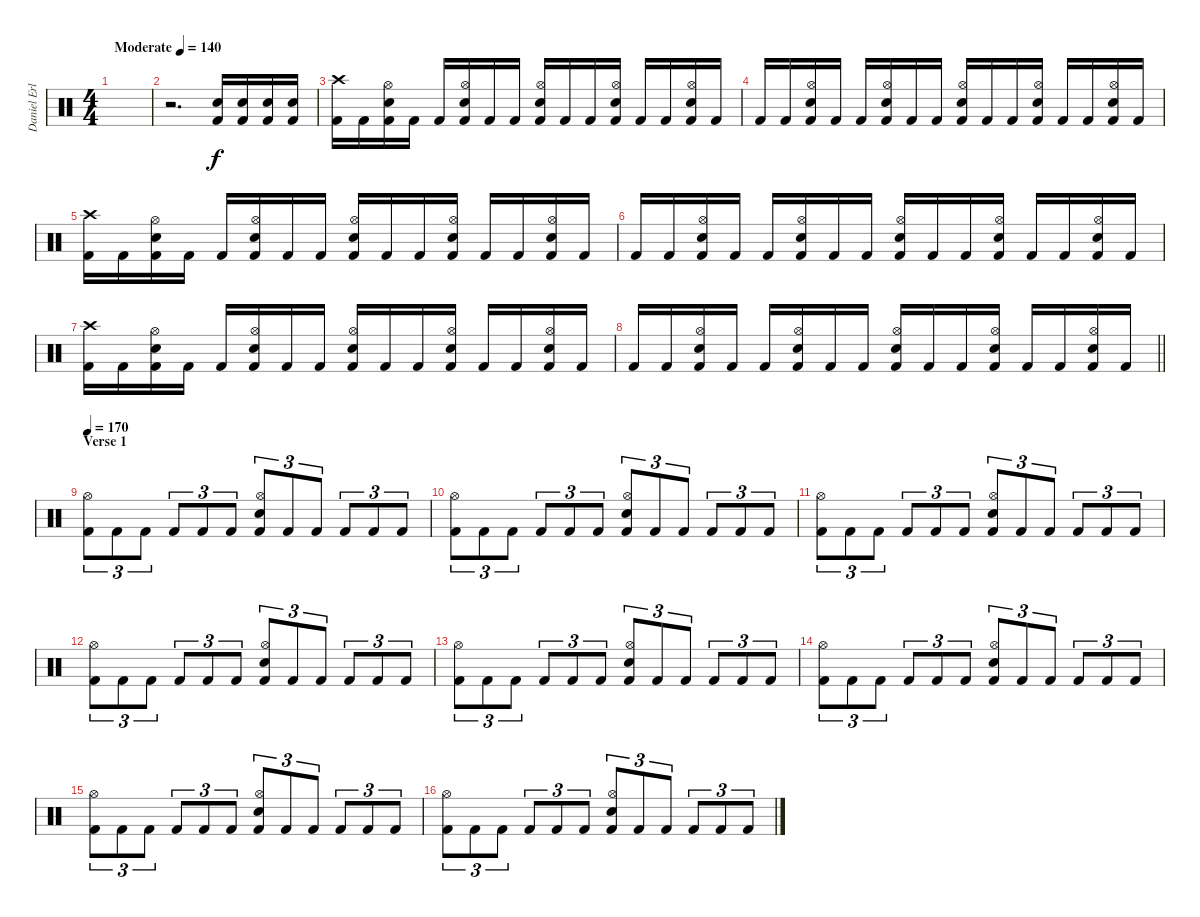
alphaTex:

\track ("Daniel Erlandsson" "Daniel Erl") {instrument percussion}
\staff {score}
\articulation defaults
\ts (4 4)
\tempo (140 "Moderate")
\clef neutral
\ks c
|
r.2{d} ("Electric Snare (hit)" "Kick (hit) 2").16 ("Electric Snare (hit)" "Kick (hit) 2").16 ("Electric Snare (hit)" "Kick (hit) 2").16 ("Electric Snare (hit)" "Kick (hit) 2").16 |
("Crash high (hit)" "Kick (hit) 2").16 "Kick (hit) 2".16 ("Hi-Hat (open)" "Snare (hit) 2" "Kick (hit) 2").16 "Kick (hit) 2".16 "Kick (hit) 2".16 ("Hi-Hat (open)" "Snare (hit) 2" "Kick (hit) 2").16 "Kick (hit) 2".16 "Kick (hit) 2".16 ("Hi-Hat (open)" "Snare (hit) 2" "Kick (hit) 2").16 "Kick (hit) 2".16 "Kick (hit) 2".16 ("Hi-Hat (open)" "Snare (hit) 2" "Kick (hit) 2").16 "Kick (hit) 2".16 "Kick (hit) 2".16 ("Hi-Hat (open)" "Snare (hit) 2" "Kick (hit) 2").16 "Kick (hit) 2".16 |
"Kick (hit) 2".16 "Kick (hit) 2".16 ("Hi-Hat (open)" "Snare (hit) 2" "Kick (hit) 2").16 "Kick (hit) 2".16 "Kick (hit) 2".16 ("Hi-Hat (open)" "Snare (hit) 2" "Kick (hit) 2").16 "Kick (hit) 2".16 "Kick (hit) 2".16 ("Hi-Hat (open)" "Snare (hit) 2" "Kick (hit) 2").16 "Kick (hit) 2".16 "Kick (hit) 2".16 ("Hi-Hat (open)" "Snare (hit) 2" "Kick (hit) 2").16 "Kick (hit) 2".16 "Kick (hit) 2".16 ("Hi-Hat (open)" "Snare (hit) 2" "Kick (hit) 2").16 "Kick (hit) 2".16 |
("Crash high (hit)" "Kick (hit) 2").16 "Kick (hit) 2".16 ("Hi-Hat (open)" "Snare (hit) 2" "Kick (hit) 2").16 "Kick (hit) 2".16 "Kick (hit) 2".16 ("Hi-Hat (open)" "Snare (hit) 2" "Kick (hit) 2").16 "Kick (hit) 2".16 "Kick (hit) 2".16 ("Hi-Hat (open)" "Snare (hit) 2" "Kick (hit) 2").16 "Kick (hit) 2".16 "Kick (hit) 2".16 ("Hi-Hat (open)" "Snare (hit) 2" "Kick (hit) 2").16 "Kick (hit) 2".16 "Kick (hit) 2".16 ("Hi-Hat (open)" "Snare (hit) 2" "Kick (hit) 2").16 "Kick (hit) 2".16 |
"Kick (hit) 2".16 "Kick (hit) 2".16 ("Hi-Hat (open)" "Snare (hit) 2" "Kick (hit) 2").16 "Kick (hit) 2".16 "Kick (hit) 2".16 ("Hi-Hat (open)" "Snare (hit) 2" "Kick (hit) 2").16 "Kick (hit) 2".16 "Kick (hit) 2".16 ("Hi-Hat (open)" "Snare (hit) 2" "Kick (hit) 2").16 "Kick (hit) 2".16 "Kick (hit) 2".16 ("Hi-Hat (open)" "Snare (hit) 2" "Kick (hit) 2").16 "Kick (hit) 2".16 "Kick (hit) 2".16 ("Hi-Hat (open)" "Snare (hit) 2" "Kick (hit) 2").16 "Kick (hit) 2".16 |
("Crash high (hit)" "Kick (hit) 2").16 "Kick (hit) 2".16 ("Hi-Hat (open)" "Snare (hit) 2" "Kick (hit) 2").16 "Kick (hit) 2".16 "Kick (hit) 2".16 ("Hi-Hat (open)" "Snare (hit) 2" "Kick (hit) 2").16 "Kick (hit) 2".16 "Kick (hit) 2".16 ("Hi-Hat (open)" "Snare (hit) 2" "Kick (hit) 2").16 "Kick (hit) 2".16 "Kick (hit) 2".16 ("Hi-Hat (open)" "Snare (hit) 2" "Kick (hit) 2").16 "Kick (hit) 2".16 "Kick (hit) 2".16 ("Hi-Hat (open)" "Snare (hit) 2" "Kick (hit) 2").16 "Kick (hit) 2".16 |
\barLineRight lightlight "Kick (hit) 2".16 "Kick (hit) 2".16
("Hi-Hat (open)" "Snare (hit) 2" "Kick (hit) 2").16 "Kick (hit) 2".16 "Kick (hit) 2".16 ("Hi-Hat (open)" "Snare (hit) 2" "Kick (hit) 2").16 "Kick (hit) 2".16 "Kick (hit) 2".16 ("Hi-Hat (open)" "Snare (hit) 2" "Kick (hit) 2").16 "Kick (hit) 2".16 "Kick (hit) 2".16 ("Hi-Hat (open)" "Snare (hit) 2" "Kick (hit) 2").16 "Kick (hit) 2".16 "Kick (hit) 2".16 ("Hi-Hat (open)" "Snare (hit) 2" "Kick (hit) 2").16 "Kick (hit) 2".16 |
\section ("" "Verse 1")
\tempo 170
("Hi-Hat (open)" "Kick (hit) 2").8{tu (3 2)} "Kick (hit) 2".8{tu (3 2)} "Kick (hit) 2".8{tu (3 2)} "Kick (hit) 2".8{tu (3 2)} "Kick (hit) 2".8{tu (3 2)} "Kick (hit) 2".8{tu (3 2)} ("Hi-Hat (open)" "Snare (hit) 2" "Kick (hit) 2").8{tu (3 2)} "Kick (hit) 2".8{tu (3 2)} "Kick (hit) 2".8{tu (3 2)} "Kick (hit) 2".8{tu (3 2)} "Kick (hit) 2".8{tu (3 2)} "Kick (hit) 2".8{tu (3 2)} |
("Hi-Hat (open)" "Kick (hit) 2").8{tu (3 2)} "Kick (hit) 2".8{tu (3 2)} "Kick (hit) 2".8{tu (3 2)} "Kick (hit) 2".8{tu (3 2)} "Kick (hit) 2".8{tu (3 2)} "Kick (hit) 2".8{tu (3 2)} ("Hi-Hat (open)" "Snare (hit) 2" "Kick (hit) 2").8{tu (3 2)} "Kick (hit) 2".8{tu (3 2)} "Kick (hit) 2".8{tu (3 2)} "Kick (hit) 2".8{tu (3 2)} "Kick (hit) 2".8{tu (3 2)} "Kick (hit) 2".8{tu (3 2)} |
("Hi-Hat (open)" "Kick (hit) 2").8{tu (3 2)} "Kick (hit) 2".8{tu (3 2)} "Kick (hit) 2".8{tu (3 2)} "Kick (hit) 2".8{tu (3 2)} "Kick (hit) 2".8{tu (3 2)} "Kick (hit) 2".8{tu (3 2)} ("Hi-Hat (open)" "Snare (hit) 2" "Kick (hit) 2").8{tu (3 2)} "Kick (hit) 2".8{tu (3 2)} "Kick (hit) 2".8{tu (3 2)} "Kick (hit) 2".8{tu (3 2)} "Kick (hit) 2".8{tu (3 2)} "Kick (hit) 2".8{tu (3 2)} |
("Hi-Hat (open)" "Kick (hit) 2").8{tu (3 2)} "Kick (hit) 2".8{tu (3 2)} "Kick (hit) 2".8{tu (3 2)} "Kick (hit) 2".8{tu (3 2)} "Kick (hit) 2".8{tu (3 2)} "Kick (hit) 2".8{tu (3 2)} ("Hi-Hat (open)" "Snare (hit) 2" "Kick (hit) 2").8{tu (3 2)} "Kick (hit) 2".8{tu (3 2)} "Kick (hit) 2".8{tu (3 2)} "Kick (hit) 2".8{tu (3 2)} "Kick (hit) 2".8{tu (3 2)} "Kick (hit) 2".8{tu (3 2)} |
("Hi-Hat (open)" "Kick (hit) 2").8{tu (3 2)} "Kick (hit) 2".8{tu (3 2)} "Kick (hit) 2".8{tu (3 2)} "Kick (hit) 2".8{tu (3 2)} "Kick (hit) 2".8{tu (3 2)} "Kick (hit) 2".8{tu (3 2)} ("Hi-Hat (open)" "Snare (hit) 2" "Kick (hit) 2").8{tu (3 2)} "Kick (hit) 2".8{tu (3 2)} "Kick (hit) 2".8{tu (3 2)} "Kick (hit) 2".8{tu (3 2)} "Kick (hit) 2".8{tu (3 2)} "Kick (hit) 2".8{tu (3 2)} |
("Hi-Hat (open)" "Kick (hit) 2").8{tu (3 2)} "Kick (hit) 2".8{tu (3 2)} "Kick (hit) 2".8{tu (3 2)} "Kick (hit) 2".8{tu (3 2)} "Kick (hit) 2".8{tu (3 2)} "Kick (hit) 2".8{tu (3 2)} ("Hi-Hat (open)" "Snare (hit) 2" "Kick (hit) 2").8{tu (3 2)} "Kick (hit) 2".8{tu (3 2)} "Kick (hit) 2".8{tu (3 2)} "Kick (hit) 2".8{tu (3 2)} "Kick (hit) 2".8{tu (3 2)} "Kick (hit) 2".8{tu (3 2)} |
("Hi-Hat (open)" "Kick (hit) 2").8{tu (3 2)} "Kick (hit) 2".8{tu (3 2)} "Kick (hit) 2".8{tu (3 2)} "Kick (hit) 2".8{tu (3 2)} "Kick (hit) 2".8{tu (3 2)} "Kick (hit) 2".8{tu (3 2)} ("Hi-Hat (open)" "Snare (hit) 2" "Kick (hit) 2").8{tu (3 2)} "Kick (hit) 2".8{tu (3 2)} "Kick (hit) 2".8{tu (3 2)} "Kick (hit) 2".8{tu (3 2)} "Kick (hit) 2".8{tu (3 2)} "Kick (hit) 2".8{tu (3 2)} |
("Hi-Hat (open)" "Kick (hit) 2").8{tu (3 2)} "Kick (hit) 2".8{tu (3 2)} "Kick (hit) 2".8{tu (3 2)} "Kick (hit) 2".8{tu (3 2)} "Kick (hit) 2".8{tu (3 2)} "Kick (hit) 2".8{tu (3 2)} ("Hi-Hat (open)" "Snare (hit) 2" "Kick (hit) 2").8{tu (3 2)} "Kick (hit) 2".8{tu (3 2)} "Kick (hit) 2".8{tu (3 2)} "Kick (hit) 2".8{tu (3 2)} "Kick (hit) 2".8{tu (3 2)} "Kick (hit) 2".8{tu (3 2)}
